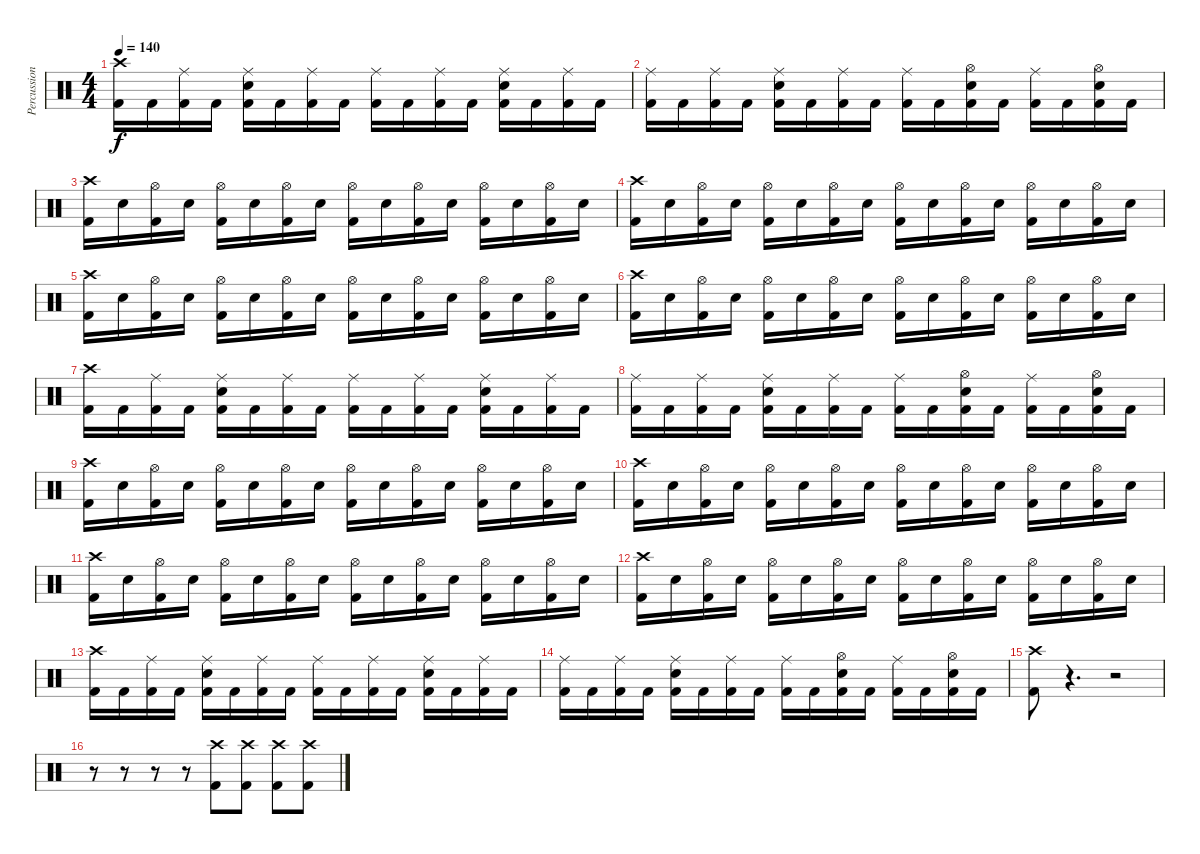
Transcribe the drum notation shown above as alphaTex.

\track ("Percussion" "Percussion") {instrument percussion}
\staff {score}
\articulation defaults
\ts (4 4)
\tempo 140
\clef neutral
\ks c
("Crash high (hit)" "Kick (hit) 2").16{dy f} "Kick (hit) 2".16 ("Ride (middle)" "Kick (hit) 2").16 "Kick (hit) 2".16 ("Ride (middle)" "Electric Snare (hit)" "Kick (hit) 2").16 "Kick (hit) 2".16 ("Ride (middle)" "Kick (hit) 2").16 "Kick (hit) 2".16 ("Ride (middle)" "Kick (hit) 2").16 "Kick (hit) 2".16 ("Ride (middle)" "Kick (hit) 2").16 "Kick (hit) 2".16 ("Ride (middle)" "Electric Snare (hit)" "Kick (hit) 2").16 "Kick (hit) 2".16 ("Ride (middle)" "Kick (hit) 2").16 "Kick (hit) 2".16 |
("Ride (middle)" "Kick (hit) 2").16 "Kick (hit) 2".16 ("Ride (middle)" "Kick (hit) 2").16 "Kick (hit) 2".16 ("Ride (middle)" "Electric Snare (hit)" "Kick (hit) 2").16 "Kick (hit) 2".16 ("Ride (middle)" "Kick (hit) 2").16 "Kick (hit) 2".16 ("Ride (middle)" "Kick (hit) 2").16 "Kick (hit) 2".16 ("Hi-Hat (open)" "Electric Snare (hit)" "Kick (hit) 2").16 "Kick (hit) 2".16 ("Ride (middle)" "Kick (hit) 2").16 "Kick (hit) 2".16 ("Hi-Hat (open)" "Electric Snare (hit)" "Kick (hit) 2").16 "Kick (hit) 2".16 |
("Crash high (hit)" "Kick (hit) 2").16 "Electric Snare (hit)".16 ("Hi-Hat (open)" "Kick (hit) 2").16 "Electric Snare (hit)".16 ("Hi-Hat (open)" "Kick (hit) 2").16 "Electric Snare (hit)".16 ("Hi-Hat (open)" "Kick (hit) 2").16 "Electric Snare (hit)".16 ("Hi-Hat (open)" "Kick (hit) 2").16 "Electric Snare (hit)".16 ("Hi-Hat (open)" "Kick (hit) 2").16 "Electric Snare (hit)".16 ("Hi-Hat (open)" "Kick (hit) 2").16 "Electric Snare (hit)".16 ("Hi-Hat (open)" "Kick (hit) 2").16 "Electric Snare (hit)".16 |
("Crash high (hit)" "Kick (hit) 2").16 "Electric Snare (hit)".16 ("Hi-Hat (open)" "Kick (hit) 2").16 "Electric Snare (hit)".16 ("Hi-Hat (open)" "Kick (hit) 2").16 "Electric Snare (hit)".16 ("Hi-Hat (open)" "Kick (hit) 2").16 "Electric Snare (hit)".16 ("Hi-Hat (open)" "Kick (hit) 2").16 "Electric Snare (hit)".16 ("Hi-Hat (open)" "Kick (hit) 2").16 "Electric Snare (hit)".16 ("Hi-Hat (open)" "Kick (hit) 2").16 "Electric Snare (hit)".16 ("Hi-Hat (open)" "Kick (hit) 2").16 "Electric Snare (hit)".16 |
("Crash high (hit)" "Kick (hit) 2").16 "Electric Snare (hit)".16 ("Hi-Hat (open)" "Kick (hit) 2").16 "Electric Snare (hit)".16 ("Hi-Hat (open)" "Kick (hit) 2").16 "Electric Snare (hit)".16 ("Hi-Hat (open)" "Kick (hit) 2").16 "Electric Snare (hit)".16 ("Hi-Hat (open)" "Kick (hit) 2").16 "Electric Snare (hit)".16 ("Hi-Hat (open)" "Kick (hit) 2").16 "Electric Snare (hit)".16 ("Hi-Hat (open)" "Kick (hit) 2").16 "Electric Snare (hit)".16 ("Hi-Hat (open)" "Kick (hit) 2").16 "Electric Snare (hit)".16 |
("Crash high (hit)" "Kick (hit) 2").16 "Electric Snare (hit)".16 ("Hi-Hat (open)" "Kick (hit) 2").16 "Electric Snare (hit)".16 ("Hi-Hat (open)" "Kick (hit) 2").16 "Electric Snare (hit)".16 ("Hi-Hat (open)" "Kick (hit) 2").16 "Electric Snare (hit)".16 ("Hi-Hat (open)" "Kick (hit) 2").16 "Electric Snare (hit)".16 ("Hi-Hat (open)" "Kick (hit) 2").16 "Electric Snare (hit)".16 ("Hi-Hat (open)" "Kick (hit) 2").16 "Electric Snare (hit)".16 ("Hi-Hat (open)" "Kick (hit) 2").16 "Electric Snare (hit)".16 |
("Crash high (hit)" "Kick (hit) 2").16 "Kick (hit) 2".16 ("Ride (middle)" "Kick (hit) 2").16 "Kick (hit) 2".16 ("Ride (middle)" "Electric Snare (hit)" "Kick (hit) 2").16 "Kick (hit) 2".16 ("Ride (middle)" "Kick (hit) 2").16 "Kick (hit) 2".16 ("Ride (middle)" "Kick (hit) 2").16 "Kick (hit) 2".16 ("Ride (middle)" "Kick (hit) 2").16 "Kick (hit) 2".16 ("Ride (middle)" "Electric Snare (hit)" "Kick (hit) 2").16 "Kick (hit) 2".16 ("Ride (middle)" "Kick (hit) 2").16 "Kick (hit) 2".16 |
("Ride (middle)" "Kick (hit) 2").16 "Kick (hit) 2".16 ("Ride (middle)" "Kick (hit) 2").16 "Kick (hit) 2".16 ("Ride (middle)" "Electric Snare (hit)" "Kick (hit) 2").16 "Kick (hit) 2".16 ("Ride (middle)" "Kick (hit) 2").16 "Kick (hit) 2".16 ("Ride (middle)" "Kick (hit) 2").16 "Kick (hit) 2".16 ("Hi-Hat (open)" "Electric Snare (hit)" "Kick (hit) 2").16 "Kick (hit) 2".16 ("Ride (middle)" "Kick (hit) 2").16 "Kick (hit) 2".16 ("Hi-Hat (open)" "Electric Snare (hit)" "Kick (hit) 2").16 "Kick (hit) 2".16 |
("Crash high (hit)" "Kick (hit) 2").16 "Electric Snare (hit)".16 ("Hi-Hat (open)" "Kick (hit) 2").16 "Electric Snare (hit)".16 ("Hi-Hat (open)" "Kick (hit) 2").16 "Electric Snare (hit)".16 ("Hi-Hat (open)" "Kick (hit) 2").16 "Electric Snare (hit)".16 ("Hi-Hat (open)" "Kick (hit) 2").16 "Electric Snare (hit)".16 ("Hi-Hat (open)" "Kick (hit) 2").16 "Electric Snare (hit)".16 ("Hi-Hat (open)" "Kick (hit) 2").16 "Electric Snare (hit)".16 ("Hi-Hat (open)" "Kick (hit) 2").16 "Electric Snare (hit)".16 |
("Crash high (hit)" "Kick (hit) 2").16 "Electric Snare (hit)".16 ("Hi-Hat (open)" "Kick (hit) 2").16 "Electric Snare (hit)".16 ("Hi-Hat (open)" "Kick (hit) 2").16 "Electric Snare (hit)".16 ("Hi-Hat (open)" "Kick (hit) 2").16 "Electric Snare (hit)".16 ("Hi-Hat (open)" "Kick (hit) 2").16 "Electric Snare (hit)".16 ("Hi-Hat (open)" "Kick (hit) 2").16 "Electric Snare (hit)".16 ("Hi-Hat (open)" "Kick (hit) 2").16 "Electric Snare (hit)".16 ("Hi-Hat (open)" "Kick (hit) 2").16 "Electric Snare (hit)".16 |
("Crash high (hit)" "Kick (hit) 2").16 "Electric Snare (hit)".16 ("Hi-Hat (open)" "Kick (hit) 2").16 "Electric Snare (hit)".16 ("Hi-Hat (open)" "Kick (hit) 2").16 "Electric Snare (hit)".16 ("Hi-Hat (open)" "Kick (hit) 2").16 "Electric Snare (hit)".16 ("Hi-Hat (open)" "Kick (hit) 2").16 "Electric Snare (hit)".16 ("Hi-Hat (open)" "Kick (hit) 2").16 "Electric Snare (hit)".16 ("Hi-Hat (open)" "Kick (hit) 2").16 "Electric Snare (hit)".16 ("Hi-Hat (open)" "Kick (hit) 2").16 "Electric Snare (hit)".16 |
("Crash high (hit)" "Kick (hit) 2").16 "Electric Snare (hit)".16 ("Hi-Hat (open)" "Kick (hit) 2").16 "Electric Snare (hit)".16 ("Hi-Hat (open)" "Kick (hit) 2").16 "Electric Snare (hit)".16 ("Hi-Hat (open)" "Kick (hit) 2").16 "Electric Snare (hit)".16 ("Hi-Hat (open)" "Kick (hit) 2").16 "Electric Snare (hit)".16 ("Hi-Hat (open)" "Kick (hit) 2").16 "Electric Snare (hit)".16 ("Hi-Hat (open)" "Kick (hit) 2").16 "Electric Snare (hit)".16 ("Hi-Hat (open)" "Kick (hit) 2").16 "Electric Snare (hit)".16 |
("Crash high (hit)" "Kick (hit) 2").16 "Kick (hit) 2".16 ("Ride (middle)" "Kick (hit) 2").16 "Kick (hit) 2".16 ("Ride (middle)" "Electric Snare (hit)" "Kick (hit) 2").16 "Kick (hit) 2".16 ("Ride (middle)" "Kick (hit) 2").16 "Kick (hit) 2".16 ("Ride (middle)" "Kick (hit) 2").16 "Kick (hit) 2".16 ("Ride (middle)" "Kick (hit) 2").16 "Kick (hit) 2".16 ("Ride (middle)" "Electric Snare (hit)" "Kick (hit) 2").16 "Kick (hit) 2".16 ("Ride (middle)" "Kick (hit) 2").16 "Kick (hit) 2".16 |
("Ride (middle)" "Kick (hit) 2").16 "Kick (hit) 2".16 ("Ride (middle)" "Kick (hit) 2").16 "Kick (hit) 2".16 ("Ride (middle)" "Electric Snare (hit)" "Kick (hit) 2").16 "Kick (hit) 2".16 ("Ride (middle)" "Kick (hit) 2").16 "Kick (hit) 2".16 ("Ride (middle)" "Kick (hit) 2").16 "Kick (hit) 2".16 ("Hi-Hat (open)" "Electric Snare (hit)" "Kick (hit) 2").16 "Kick (hit) 2".16 ("Ride (middle)" "Kick (hit) 2").16 "Kick (hit) 2".16 ("Hi-Hat (open)" "Electric Snare (hit)" "Kick (hit) 2").16 "Kick (hit) 2".16 |
("Crash high (hit)" "Kick (hit) 2").8 r.4{d volume 0} r.2 |
r.8 r.8 r.8 r.8 ("Crash high (hit)" "Kick (hit) 2").8{volume 13} ("Crash high (hit)" "Kick (hit) 2").8 ("Crash high (hit)" "Kick (hit) 2").8 ("Crash high (hit)" "Kick (hit) 2").8
